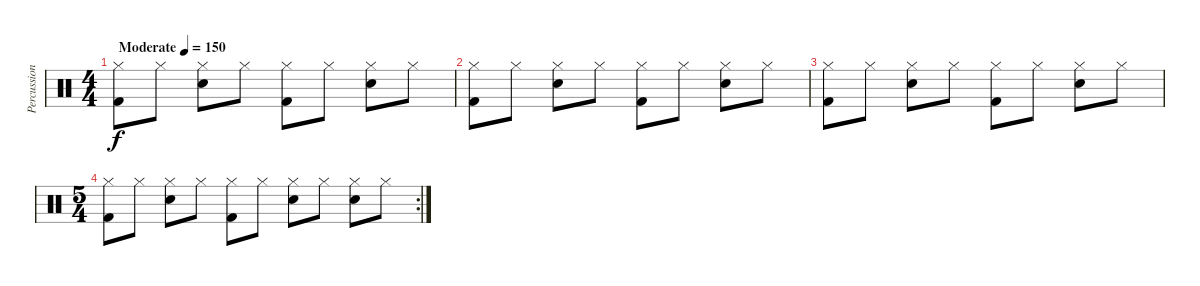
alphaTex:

\track ("Percussion" "Percussion") {instrument percussion}
\staff {score}
\articulation defaults
\ts (4 4)
\tempo (150 "Moderate")
\clef neutral
\ks c
("Hi-Hat (closed)" "Kick (hit) 2").8{dy f} "Hi-Hat (closed)".8 ("Hi-Hat (closed)" "Electric Snare (hit)").8 "Hi-Hat (closed)".8 ("Hi-Hat (closed)" "Kick (hit) 2").8 "Hi-Hat (closed)".8 ("Hi-Hat (closed)" "Electric Snare (hit)").8 "Hi-Hat (closed)".8 |
("Hi-Hat (closed)" "Kick (hit) 2").8 "Hi-Hat (closed)".8 ("Hi-Hat (closed)" "Electric Snare (hit)").8 "Hi-Hat (closed)".8 ("Hi-Hat (closed)" "Kick (hit) 2").8 "Hi-Hat (closed)".8 ("Hi-Hat (closed)" "Electric Snare (hit)").8 "Hi-Hat (closed)".8 |
("Hi-Hat (closed)" "Kick (hit) 2").8 "Hi-Hat (closed)".8 ("Hi-Hat (closed)" "Electric Snare (hit)").8 "Hi-Hat (closed)".8 ("Hi-Hat (closed)" "Kick (hit) 2").8 "Hi-Hat (closed)".8 ("Hi-Hat (closed)" "Electric Snare (hit)").8 "Hi-Hat (closed)".8 |
\rc 2
\ts (5 4)
("Hi-Hat (closed)" "Kick (hit) 2").8 "Hi-Hat (closed)".8 ("Hi-Hat (closed)" "Electric Snare (hit)").8 "Hi-Hat (closed)".8 ("Hi-Hat (closed)" "Kick (hit) 2").8 "Hi-Hat (closed)".8 ("Hi-Hat (closed)" "Electric Snare (hit)").8 "Hi-Hat (closed)".8 ("Hi-Hat (closed)" "Electric Snare (hit)").8 "Hi-Hat (closed)".8
